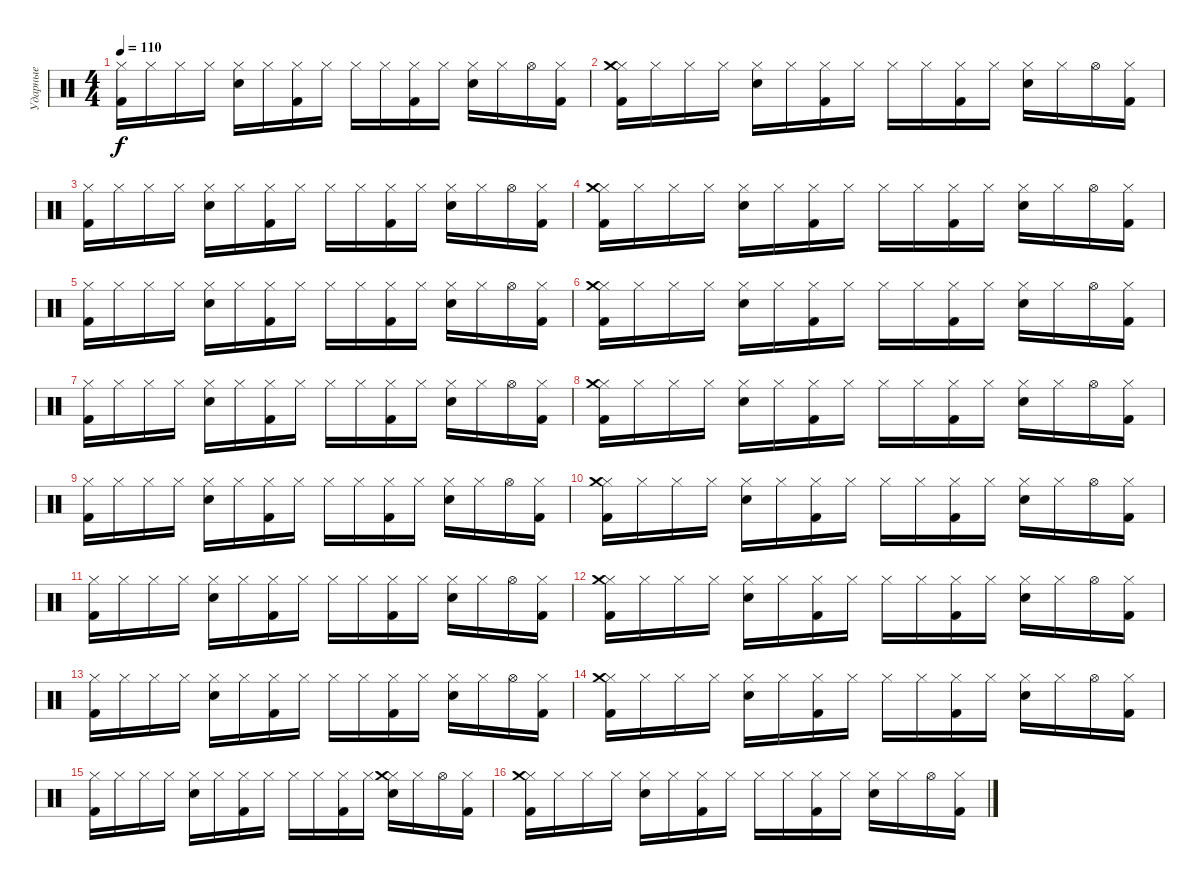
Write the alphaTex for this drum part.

\track ("Ударные" "Ударные") {instrument percussion}
\staff {score}
\articulation defaults
\ts (4 4)
\tempo 110
\clef neutral
\ks c
("Hi-Hat (closed)" "Kick (hit) 2").16{dy f} "Hi-Hat (closed)".16 "Hi-Hat (closed)".16 "Hi-Hat (closed)".16 ("Hi-Hat (closed)" "Electric Snare (hit)").16 "Hi-Hat (closed)".16 ("Hi-Hat (closed)" "Kick (hit) 2").16 "Hi-Hat (closed)".16 "Hi-Hat (closed)".16 "Hi-Hat (closed)".16 ("Hi-Hat (closed)" "Kick (hit) 2").16 "Hi-Hat (closed)".16 ("Hi-Hat (closed)" "Electric Snare (hit)").16 "Hi-Hat (closed)".16 "Hi-Hat (open)".16 ("Hi-Hat (closed)" "Kick (hit) 2").16 |
("Hi-Hat (closed)" "Kick (hit) 2" "Crash medium (hit)").16 "Hi-Hat (closed)".16 "Hi-Hat (closed)".16 "Hi-Hat (closed)".16 ("Hi-Hat (closed)" "Electric Snare (hit)").16 "Hi-Hat (closed)".16 ("Hi-Hat (closed)" "Kick (hit) 2").16 "Hi-Hat (closed)".16 "Hi-Hat (closed)".16 "Hi-Hat (closed)".16 ("Hi-Hat (closed)" "Kick (hit) 2").16 "Hi-Hat (closed)".16 ("Hi-Hat (closed)" "Electric Snare (hit)").16 "Hi-Hat (closed)".16 "Hi-Hat (open)".16 ("Hi-Hat (closed)" "Kick (hit) 2").16 |
("Hi-Hat (closed)" "Kick (hit) 2").16 "Hi-Hat (closed)".16 "Hi-Hat (closed)".16 "Hi-Hat (closed)".16 ("Hi-Hat (closed)" "Electric Snare (hit)").16 "Hi-Hat (closed)".16 ("Hi-Hat (closed)" "Kick (hit) 2").16 "Hi-Hat (closed)".16 "Hi-Hat (closed)".16 "Hi-Hat (closed)".16 ("Hi-Hat (closed)" "Kick (hit) 2").16 "Hi-Hat (closed)".16 ("Hi-Hat (closed)" "Electric Snare (hit)").16 "Hi-Hat (closed)".16 "Hi-Hat (open)".16 ("Hi-Hat (closed)" "Kick (hit) 2").16 |
("Hi-Hat (closed)" "Kick (hit) 2" "Crash medium (hit)").16 "Hi-Hat (closed)".16 "Hi-Hat (closed)".16 "Hi-Hat (closed)".16 ("Hi-Hat (closed)" "Electric Snare (hit)").16 "Hi-Hat (closed)".16 ("Hi-Hat (closed)" "Kick (hit) 2").16 "Hi-Hat (closed)".16 "Hi-Hat (closed)".16 "Hi-Hat (closed)".16 ("Hi-Hat (closed)" "Kick (hit) 2").16 "Hi-Hat (closed)".16 ("Hi-Hat (closed)" "Electric Snare (hit)").16 "Hi-Hat (closed)".16 "Hi-Hat (open)".16 ("Hi-Hat (closed)" "Kick (hit) 2").16 |
("Hi-Hat (closed)" "Kick (hit) 2").16 "Hi-Hat (closed)".16 "Hi-Hat (closed)".16 "Hi-Hat (closed)".16 ("Hi-Hat (closed)" "Electric Snare (hit)").16 "Hi-Hat (closed)".16 ("Hi-Hat (closed)" "Kick (hit) 2").16 "Hi-Hat (closed)".16 "Hi-Hat (closed)".16 "Hi-Hat (closed)".16 ("Hi-Hat (closed)" "Kick (hit) 2").16 "Hi-Hat (closed)".16 ("Hi-Hat (closed)" "Electric Snare (hit)").16 "Hi-Hat (closed)".16 "Hi-Hat (open)".16 ("Hi-Hat (closed)" "Kick (hit) 2").16 |
("Hi-Hat (closed)" "Kick (hit) 2" "Crash medium (hit)").16 "Hi-Hat (closed)".16 "Hi-Hat (closed)".16 "Hi-Hat (closed)".16 ("Hi-Hat (closed)" "Electric Snare (hit)").16 "Hi-Hat (closed)".16 ("Hi-Hat (closed)" "Kick (hit) 2").16 "Hi-Hat (closed)".16 "Hi-Hat (closed)".16 "Hi-Hat (closed)".16 ("Hi-Hat (closed)" "Kick (hit) 2").16 "Hi-Hat (closed)".16 ("Hi-Hat (closed)" "Electric Snare (hit)").16 "Hi-Hat (closed)".16 "Hi-Hat (open)".16 ("Hi-Hat (closed)" "Kick (hit) 2").16 |
("Hi-Hat (closed)" "Kick (hit) 2").16 "Hi-Hat (closed)".16 "Hi-Hat (closed)".16 "Hi-Hat (closed)".16 ("Hi-Hat (closed)" "Electric Snare (hit)").16 "Hi-Hat (closed)".16 ("Hi-Hat (closed)" "Kick (hit) 2").16 "Hi-Hat (closed)".16 "Hi-Hat (closed)".16 "Hi-Hat (closed)".16 ("Hi-Hat (closed)" "Kick (hit) 2").16 "Hi-Hat (closed)".16 ("Hi-Hat (closed)" "Electric Snare (hit)").16 "Hi-Hat (closed)".16 "Hi-Hat (open)".16 ("Hi-Hat (closed)" "Kick (hit) 2").16 |
("Hi-Hat (closed)" "Kick (hit) 2" "Crash medium (hit)").16 "Hi-Hat (closed)".16 "Hi-Hat (closed)".16 "Hi-Hat (closed)".16 ("Hi-Hat (closed)" "Electric Snare (hit)").16 "Hi-Hat (closed)".16 ("Hi-Hat (closed)" "Kick (hit) 2").16 "Hi-Hat (closed)".16 "Hi-Hat (closed)".16 "Hi-Hat (closed)".16 ("Hi-Hat (closed)" "Kick (hit) 2").16 "Hi-Hat (closed)".16 ("Hi-Hat (closed)" "Electric Snare (hit)").16 "Hi-Hat (closed)".16 "Hi-Hat (open)".16 ("Hi-Hat (closed)" "Kick (hit) 2").16 |
("Hi-Hat (closed)" "Kick (hit) 2").16 "Hi-Hat (closed)".16 "Hi-Hat (closed)".16 "Hi-Hat (closed)".16 ("Hi-Hat (closed)" "Electric Snare (hit)").16 "Hi-Hat (closed)".16 ("Hi-Hat (closed)" "Kick (hit) 2").16 "Hi-Hat (closed)".16 "Hi-Hat (closed)".16 "Hi-Hat (closed)".16 ("Hi-Hat (closed)" "Kick (hit) 2").16 "Hi-Hat (closed)".16 ("Hi-Hat (closed)" "Electric Snare (hit)").16 "Hi-Hat (closed)".16 "Hi-Hat (open)".16 ("Hi-Hat (closed)" "Kick (hit) 2").16 |
("Hi-Hat (closed)" "Kick (hit) 2" "Crash medium (hit)").16 "Hi-Hat (closed)".16 "Hi-Hat (closed)".16 "Hi-Hat (closed)".16 ("Hi-Hat (closed)" "Electric Snare (hit)").16 "Hi-Hat (closed)".16 ("Hi-Hat (closed)" "Kick (hit) 2").16 "Hi-Hat (closed)".16 "Hi-Hat (closed)".16 "Hi-Hat (closed)".16 ("Hi-Hat (closed)" "Kick (hit) 2").16 "Hi-Hat (closed)".16 ("Hi-Hat (closed)" "Electric Snare (hit)").16 "Hi-Hat (closed)".16 "Hi-Hat (open)".16 ("Hi-Hat (closed)" "Kick (hit) 2").16 |
("Hi-Hat (closed)" "Kick (hit) 2").16 "Hi-Hat (closed)".16 "Hi-Hat (closed)".16 "Hi-Hat (closed)".16 ("Hi-Hat (closed)" "Electric Snare (hit)").16 "Hi-Hat (closed)".16 ("Hi-Hat (closed)" "Kick (hit) 2").16 "Hi-Hat (closed)".16 "Hi-Hat (closed)".16 "Hi-Hat (closed)".16 ("Hi-Hat (closed)" "Kick (hit) 2").16 "Hi-Hat (closed)".16 ("Hi-Hat (closed)" "Electric Snare (hit)").16 "Hi-Hat (closed)".16 "Hi-Hat (open)".16 ("Hi-Hat (closed)" "Kick (hit) 2").16 |
("Hi-Hat (closed)" "Kick (hit) 2" "Crash medium (hit)").16 "Hi-Hat (closed)".16 "Hi-Hat (closed)".16 "Hi-Hat (closed)".16 ("Hi-Hat (closed)" "Electric Snare (hit)").16 "Hi-Hat (closed)".16 ("Hi-Hat (closed)" "Kick (hit) 2").16 "Hi-Hat (closed)".16 "Hi-Hat (closed)".16 "Hi-Hat (closed)".16 ("Hi-Hat (closed)" "Kick (hit) 2").16 "Hi-Hat (closed)".16 ("Hi-Hat (closed)" "Electric Snare (hit)").16 "Hi-Hat (closed)".16 "Hi-Hat (open)".16 ("Hi-Hat (closed)" "Kick (hit) 2").16 |
("Hi-Hat (closed)" "Kick (hit) 2").16 "Hi-Hat (closed)".16 "Hi-Hat (closed)".16 "Hi-Hat (closed)".16 ("Hi-Hat (closed)" "Electric Snare (hit)").16 "Hi-Hat (closed)".16 ("Hi-Hat (closed)" "Kick (hit) 2").16 "Hi-Hat (closed)".16 "Hi-Hat (closed)".16 "Hi-Hat (closed)".16 ("Hi-Hat (closed)" "Kick (hit) 2").16 "Hi-Hat (closed)".16 ("Hi-Hat (closed)" "Electric Snare (hit)").16 "Hi-Hat (closed)".16 "Hi-Hat (open)".16 ("Hi-Hat (closed)" "Kick (hit) 2").16 |
("Hi-Hat (closed)" "Kick (hit) 2" "Crash medium (hit)").16 "Hi-Hat (closed)".16 "Hi-Hat (closed)".16 "Hi-Hat (closed)".16 ("Hi-Hat (closed)" "Electric Snare (hit)").16 "Hi-Hat (closed)".16 ("Hi-Hat (closed)" "Kick (hit) 2").16 "Hi-Hat (closed)".16 "Hi-Hat (closed)".16 "Hi-Hat (closed)".16 ("Hi-Hat (closed)" "Kick (hit) 2").16 "Hi-Hat (closed)".16 ("Hi-Hat (closed)" "Electric Snare (hit)").16 "Hi-Hat (closed)".16 "Hi-Hat (open)".16 ("Hi-Hat (closed)" "Kick (hit) 2").16 |
("Hi-Hat (closed)" "Kick (hit) 2").16 "Hi-Hat (closed)".16 "Hi-Hat (closed)".16 "Hi-Hat (closed)".16 ("Hi-Hat (closed)" "Electric Snare (hit)").16 "Hi-Hat (closed)".16 ("Hi-Hat (closed)" "Kick (hit) 2").16 "Hi-Hat (closed)".16 "Hi-Hat (closed)".16 "Hi-Hat (closed)".16 ("Hi-Hat (closed)" "Kick (hit) 2").16 "Hi-Hat (closed)".16 ("Hi-Hat (closed)" "Electric Snare (hit)" "Crash medium (hit)").16 "Hi-Hat (closed)".16 "Hi-Hat (open)".16 ("Hi-Hat (closed)" "Kick (hit) 2").16 |
("Hi-Hat (closed)" "Kick (hit) 2" "Crash medium (hit)").16 "Hi-Hat (closed)".16 "Hi-Hat (closed)".16 "Hi-Hat (closed)".16 ("Hi-Hat (closed)" "Electric Snare (hit)").16 "Hi-Hat (closed)".16 ("Hi-Hat (closed)" "Kick (hit) 2").16 "Hi-Hat (closed)".16 "Hi-Hat (closed)".16 "Hi-Hat (closed)".16 ("Hi-Hat (closed)" "Kick (hit) 2").16 "Hi-Hat (closed)".16 ("Hi-Hat (closed)" "Electric Snare (hit)").16 "Hi-Hat (closed)".16 "Hi-Hat (open)".16 ("Hi-Hat (closed)" "Kick (hit) 2").16
